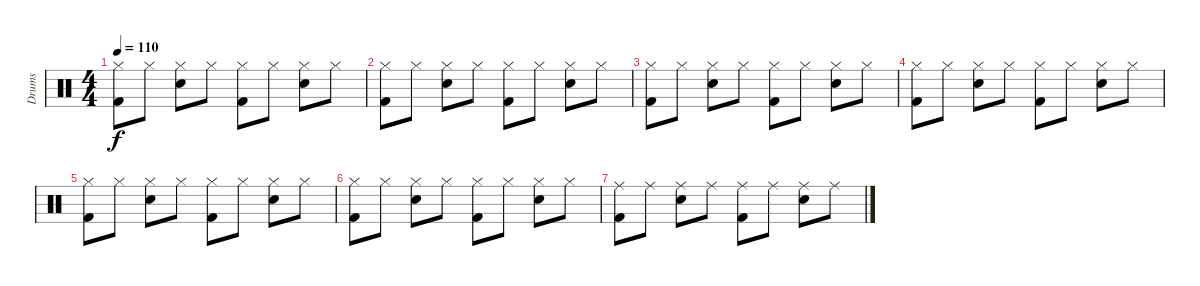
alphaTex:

\track ("Drums" "Drums") {instrument percussion}
\staff {score}
\articulation defaults
\ts (4 4)
\tempo 110
\clef neutral
\ks c
("Hi-Hat (closed)" "Kick (hit) 2").8{dy f} "Hi-Hat (closed)".8 ("Hi-Hat (closed)" "Snare (hit) 2").8 "Hi-Hat (closed)".8 ("Hi-Hat (closed)" "Kick (hit) 2").8 "Hi-Hat (closed)".8 ("Hi-Hat (closed)" "Snare (hit) 2").8 "Hi-Hat (closed)".8 |
("Hi-Hat (closed)" "Kick (hit) 2").8 "Hi-Hat (closed)".8 ("Hi-Hat (closed)" "Snare (hit) 2").8 "Hi-Hat (closed)".8 ("Hi-Hat (closed)" "Kick (hit) 2").8 "Hi-Hat (closed)".8 ("Hi-Hat (closed)" "Snare (hit) 2").8 "Hi-Hat (closed)".8 |
("Hi-Hat (closed)" "Kick (hit) 2").8 "Hi-Hat (closed)".8 ("Hi-Hat (closed)" "Snare (hit) 2").8 "Hi-Hat (closed)".8 ("Hi-Hat (closed)" "Kick (hit) 2").8 "Hi-Hat (closed)".8 ("Hi-Hat (closed)" "Snare (hit) 2").8 "Hi-Hat (closed)".8 |
("Hi-Hat (closed)" "Kick (hit) 2").8 "Hi-Hat (closed)".8 ("Hi-Hat (closed)" "Snare (hit) 2").8 "Hi-Hat (closed)".8 ("Hi-Hat (closed)" "Kick (hit) 2").8 "Hi-Hat (closed)".8 ("Hi-Hat (closed)" "Snare (hit) 2").8 "Hi-Hat (closed)".8 |
("Hi-Hat (closed)" "Kick (hit) 2").8 "Hi-Hat (closed)".8 ("Hi-Hat (closed)" "Snare (hit) 2").8 "Hi-Hat (closed)".8 ("Hi-Hat (closed)" "Kick (hit) 2").8 "Hi-Hat (closed)".8 ("Hi-Hat (closed)" "Snare (hit) 2").8 "Hi-Hat (closed)".8 |
("Hi-Hat (closed)" "Kick (hit) 2").8 "Hi-Hat (closed)".8 ("Hi-Hat (closed)" "Snare (hit) 2").8 "Hi-Hat (closed)".8 ("Hi-Hat (closed)" "Kick (hit) 2").8 "Hi-Hat (closed)".8 ("Hi-Hat (closed)" "Snare (hit) 2").8 "Hi-Hat (closed)".8 |
("Ride (middle)" "Kick (hit) 2").8 "Ride (middle)".8 ("Ride (middle)" "Snare (hit) 2").8 "Ride (middle)".8 ("Ride (middle)" "Kick (hit) 2").8 "Ride (middle)".8 ("Ride (middle)" "Snare (hit) 2").8 "Ride (middle)".8
